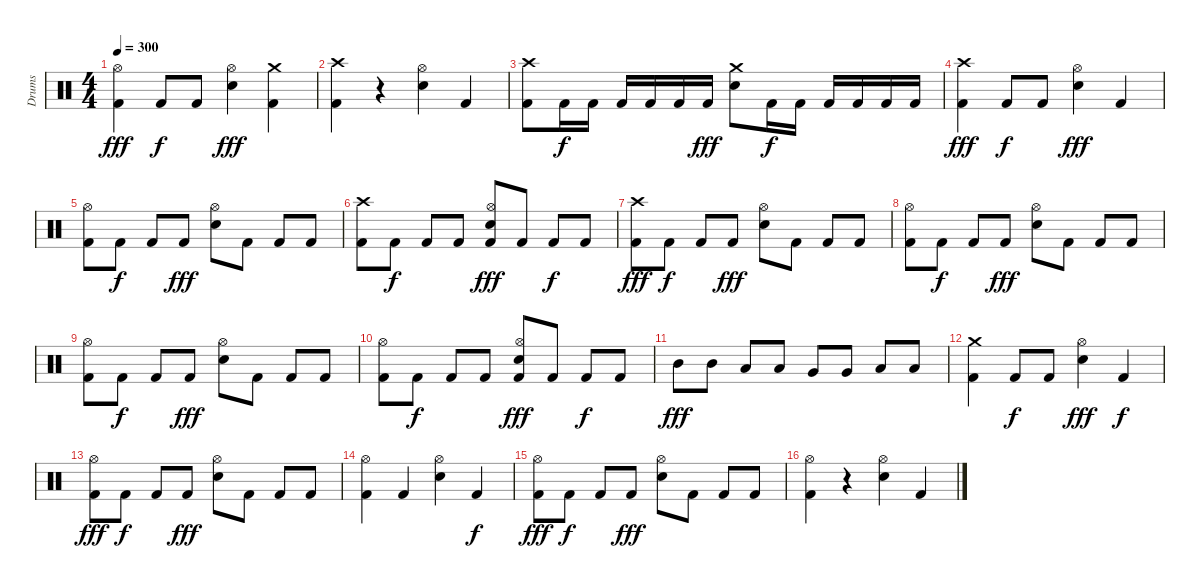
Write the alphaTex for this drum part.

\track ("Drums" "Drums") {instrument percussion}
\staff {score}
\articulation defaults
\ts (4 4)
\tempo 300
\clef neutral
\ks c
("Kick (hit) 2" "Hi-Hat (open)").4{dy fff} "Kick (hit) 2".8{dy f} "Kick (hit) 2".8 ("Snare (hit) 2" "Hi-Hat (open)").4{dy fff} ("Kick (hit) 2" "Crash medium (hit)").4 |
("Kick (hit) 2" "Crash high (hit)").4 r.4 ("Snare (hit) 2" "Hi-Hat (open)").4 "Kick (hit) 2".4 |
("Kick (hit) 2" "Crash high (hit)").8 "Kick (hit) 2".16{dy f} "Kick (hit) 2".16 "Kick (hit) 2".16 "Kick (hit) 2".16 "Kick (hit) 2".16 "Kick (hit) 2".16{dy fff} ("Snare (hit) 2" "Crash medium (hit)").8 "Kick (hit) 2".16{dy f} "Kick (hit) 2".16 "Kick (hit) 2".16 "Kick (hit) 2".16 "Kick (hit) 2".16 "Kick (hit) 2".16 |
("Kick (hit) 2" "Crash high (hit)").4{dy fff} "Kick (hit) 2".8{dy f} "Kick (hit) 2".8 ("Snare (hit) 2" "Hi-Hat (open)").4{dy fff} "Kick (hit) 2".4 |
("Kick (hit) 2" "Hi-Hat (open)").8 "Kick (hit) 2".8{dy f} "Kick (hit) 2".8 "Kick (hit) 2".8{dy fff} ("Snare (hit) 2" "Hi-Hat (open)").8 "Kick (hit) 2".8 "Kick (hit) 2".8 "Kick (hit) 2".8 |
("Kick (hit) 2" "Crash high (hit)").8 "Kick (hit) 2".8{dy f} "Kick (hit) 2".8 "Kick (hit) 2".8 ("Snare (hit) 2" "Hi-Hat (open)" "Kick (hit) 2").8{dy fff} "Kick (hit) 2".8 "Kick (hit) 2".8{dy f} "Kick (hit) 2".8 |
("Kick (hit) 2" "Crash high (hit)").8{dy fff} "Kick (hit) 2".8{dy f} "Kick (hit) 2".8 "Kick (hit) 2".8{dy fff} ("Snare (hit) 2" "Hi-Hat (open)").8 "Kick (hit) 2".8 "Kick (hit) 2".8 "Kick (hit) 2".8 |
("Kick (hit) 2" "Hi-Hat (open)").8 "Kick (hit) 2".8{dy f} "Kick (hit) 2".8 "Kick (hit) 2".8{dy fff} ("Snare (hit) 2" "Hi-Hat (open)").8 "Kick (hit) 2".8 "Kick (hit) 2".8 "Kick (hit) 2".8 |
("Kick (hit) 2" "Hi-Hat (open)").8 "Kick (hit) 2".8{dy f} "Kick (hit) 2".8 "Kick (hit) 2".8{dy fff} ("Snare (hit) 2" "Hi-Hat (open)").8 "Kick (hit) 2".8 "Kick (hit) 2".8 "Kick (hit) 2".8 |
("Kick (hit) 2" "Hi-Hat (open)").8 "Kick (hit) 2".8{dy f} "Kick (hit) 2".8 "Kick (hit) 2".8 ("Snare (hit) 2" "Hi-Hat (open)" "Kick (hit) 2").8{dy fff} "Kick (hit) 2".8 "Kick (hit) 2".8{dy f} "Kick (hit) 2".8 |
"Mid Tom (hit)".8{dy fff} "Mid Tom (hit)".8 "Low Tom (hit)".8 "Low Tom (hit)".8 "Very Low Tom (hit)".8 "Very Low Tom (hit)".8 "Low Floor Tom (hit)".8 "Low Floor Tom (hit)".8 |
("Kick (hit) 2" "Crash medium (hit)").4 "Kick (hit) 2".8{dy f} "Kick (hit) 2".8 ("Snare (hit) 2" "Hi-Hat (open)").4{dy fff} "Kick (hit) 2".4{dy f} |
("Kick (hit) 2" "Hi-Hat (open)").8{dy fff} "Kick (hit) 2".8{dy f} "Kick (hit) 2".8 "Kick (hit) 2".8{dy fff} ("Snare (hit) 2" "Hi-Hat (open)").8 "Kick (hit) 2".8 "Kick (hit) 2".8 "Kick (hit) 2".8 |
("Kick (hit) 2" "Hi-Hat (open)").4 "Kick (hit) 2".4 ("Snare (hit) 2" "Hi-Hat (open)").4 "Kick (hit) 2".4{dy f} |
("Kick (hit) 2" "Hi-Hat (open)").8{dy fff} "Kick (hit) 2".8{dy f} "Kick (hit) 2".8 "Kick (hit) 2".8{dy fff} ("Snare (hit) 2" "Hi-Hat (open)").8 "Kick (hit) 2".8 "Kick (hit) 2".8 "Kick (hit) 2".8 |
("Kick (hit) 2" "Hi-Hat (open)").4 r.4 ("Snare (hit) 2" "Hi-Hat (open)").4 "Kick (hit) 2".4
